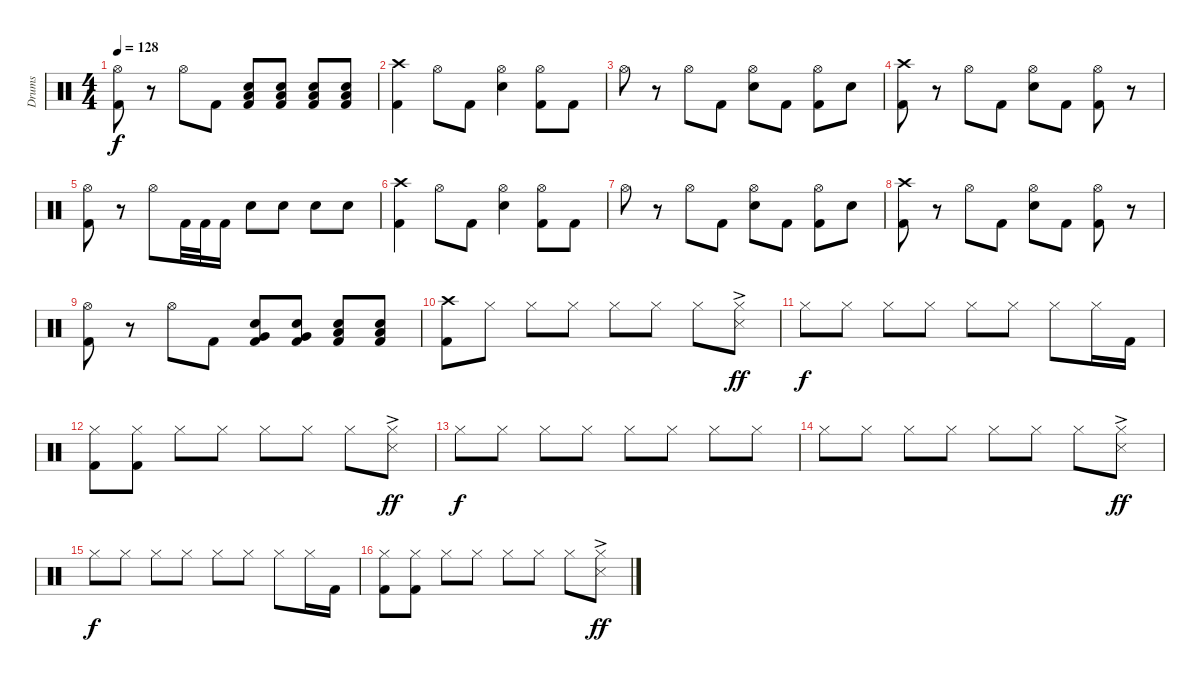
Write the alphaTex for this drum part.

\track ("Drums" "Drums") {instrument percussion}
\staff {score}
\articulation defaults
\ts (4 4)
\tempo 128
\clef neutral
\ks c
("Hi-Hat (open)" "Kick (hit) 2").8{dy f} r.8 "Hi-Hat (open)".8 "Kick (hit) 2".8 ("Electric Snare (hit)" "Low Floor Tom (hit)" "Kick (hit) 2").8 ("Electric Snare (hit)" "Low Floor Tom (hit)" "Kick (hit) 2").8 ("Electric Snare (hit)" "Low Floor Tom (hit)" "Kick (hit) 2").8 ("Electric Snare (hit)" "Low Floor Tom (hit)" "Kick (hit) 2").8 |
("Crash high (hit)" "Kick (hit) 2").4 "Hi-Hat (open)".8 "Kick (hit) 2".8 ("Hi-Hat (open)" "Electric Snare (hit)").4 ("Hi-Hat (open)" "Kick (hit) 2").8 "Kick (hit) 2".8 |
"Hi-Hat (open)".8 r.8 "Hi-Hat (open)".8 "Kick (hit) 2".8 ("Hi-Hat (open)" "Electric Snare (hit)").8 "Kick (hit) 2".8 ("Hi-Hat (open)" "Kick (hit) 2").8 "Electric Snare (hit)".8 |
("Crash high (hit)" "Kick (hit) 2").8 r.8 "Hi-Hat (open)".8 "Kick (hit) 2".8 ("Hi-Hat (open)" "Electric Snare (hit)").8 "Kick (hit) 2".8 ("Hi-Hat (open)" "Kick (hit) 2").8 r.8 |
("Hi-Hat (open)" "Kick (hit) 2").8 r.8 "Hi-Hat (open)".8 "Kick (hit) 2".32 "Kick (hit) 2".32 "Kick (hit) 2".16 "Electric Snare (hit)".8 "Electric Snare (hit)".8 "Electric Snare (hit)".8 "Electric Snare (hit)".8 |
("Crash high (hit)" "Kick (hit) 2").4 "Hi-Hat (open)".8 "Kick (hit) 2".8 ("Hi-Hat (open)" "Electric Snare (hit)").4 ("Hi-Hat (open)" "Kick (hit) 2").8 "Kick (hit) 2".8 |
"Hi-Hat (open)".8 r.8 "Hi-Hat (open)".8 "Kick (hit) 2".8 ("Hi-Hat (open)" "Electric Snare (hit)").8 "Kick (hit) 2".8 ("Hi-Hat (open)" "Kick (hit) 2").8 "Electric Snare (hit)".8 |
("Crash high (hit)" "Kick (hit) 2").8 r.8 "Hi-Hat (open)".8 "Kick (hit) 2".8 ("Hi-Hat (open)" "Electric Snare (hit)").8 "Kick (hit) 2".8 ("Hi-Hat (open)" "Kick (hit) 2").8 r.8 |
("Hi-Hat (open)" "Kick (hit) 2").8 r.8 "Hi-Hat (open)".8 "Kick (hit) 2".8 ("Electric Snare (hit)" "Very Low Tom (hit)" "Kick (hit) 2").8 ("Electric Snare (hit)" "Very Low Tom (hit)" "Kick (hit) 2").8 ("Electric Snare (hit)" "Low Floor Tom (hit)" "Kick (hit) 2").8 ("Electric Snare (hit)" "Low Floor Tom (hit)" "Kick (hit) 2").8 |
("Crash high (hit)" "Kick (hit) 2").8 "Hi-Hat (closed)".8 "Hi-Hat (closed)".8 "Hi-Hat (closed)".8 "Hi-Hat (closed)".8 "Hi-Hat (closed)".8 "Hi-Hat (closed)".8 ("Hi-Hat (closed)" "Snare (side stick) 3"{ac}).8{dy ff} |
"Hi-Hat (closed)".8{dy f} "Hi-Hat (closed)".8 "Hi-Hat (closed)".8 "Hi-Hat (closed)".8 "Hi-Hat (closed)".8 "Hi-Hat (closed)".8 "Hi-Hat (closed)".8 "Hi-Hat (closed)".16 "Kick (hit) 2".16 |
("Hi-Hat (closed)" "Kick (hit) 2").8 ("Hi-Hat (closed)" "Kick (hit) 2").8 "Hi-Hat (closed)".8 "Hi-Hat (closed)".8 "Hi-Hat (closed)".8 "Hi-Hat (closed)".8 "Hi-Hat (closed)".8 ("Hi-Hat (closed)" "Snare (side stick) 3"{ac}).8{dy ff} |
"Hi-Hat (closed)".8{dy f} "Hi-Hat (closed)".8 "Hi-Hat (closed)".8 "Hi-Hat (closed)".8 "Hi-Hat (closed)".8 "Hi-Hat (closed)".8 "Hi-Hat (closed)".8 "Hi-Hat (closed)".8 |
"Hi-Hat (closed)".8 "Hi-Hat (closed)".8 "Hi-Hat (closed)".8 "Hi-Hat (closed)".8 "Hi-Hat (closed)".8 "Hi-Hat (closed)".8 "Hi-Hat (closed)".8 ("Hi-Hat (closed)" "Snare (side stick) 3"{ac}).8{dy ff} |
"Hi-Hat (closed)".8{dy f} "Hi-Hat (closed)".8 "Hi-Hat (closed)".8 "Hi-Hat (closed)".8 "Hi-Hat (closed)".8 "Hi-Hat (closed)".8 "Hi-Hat (closed)".8 "Hi-Hat (closed)".16 "Kick (hit) 2".16 |
("Hi-Hat (closed)" "Kick (hit) 2").8 ("Hi-Hat (closed)" "Kick (hit) 2").8 "Hi-Hat (closed)".8 "Hi-Hat (closed)".8 "Hi-Hat (closed)".8 "Hi-Hat (closed)".8 "Hi-Hat (closed)".8 ("Hi-Hat (closed)" "Snare (side stick) 3"{ac}).8{dy ff}
